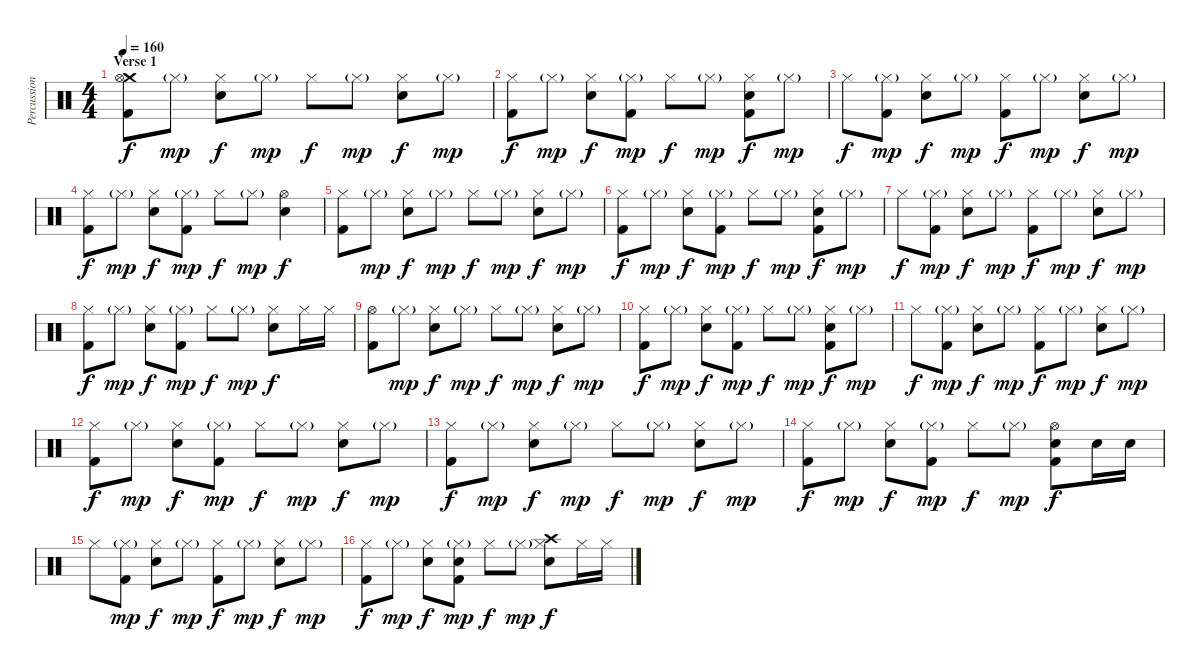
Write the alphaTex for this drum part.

\track ("Percussions" "Percussion") {instrument percussion}
\staff {score}
\articulation defaults
\ts (4 4)
\section ("" "Verse 1")
\tempo 160
\clef neutral
\ks c
("Crash medium (hit)" "Hi-Hat (open)" "Kick (hit) 2").8{dy f} "Hi-Hat (closed)"{g}.8{dy mp} ("Hi-Hat (closed)" "Snare (hit) 2").8{dy f} "Hi-Hat (closed)"{g}.8{dy mp} "Hi-Hat (closed)".8{dy f} "Hi-Hat (closed)"{g}.8{dy mp} ("Hi-Hat (closed)" "Snare (hit) 2").8{dy f} "Hi-Hat (closed)"{g}.8{dy mp} |
("Hi-Hat (closed)" "Kick (hit) 2").8{dy f} "Hi-Hat (closed)"{g}.8{dy mp} ("Hi-Hat (closed)" "Snare (hit) 2").8{dy f} ("Hi-Hat (closed)"{g} "Kick (hit) 2").8{dy mp} "Hi-Hat (closed)".8{dy f} "Hi-Hat (closed)"{g}.8{dy mp} ("Hi-Hat (closed)" "Snare (hit) 2" "Kick (hit) 2").8{dy f} "Hi-Hat (closed)"{g}.8{dy mp} |
"Hi-Hat (closed)".8{dy f} ("Hi-Hat (closed)"{g} "Kick (hit) 2").8{dy mp} ("Hi-Hat (closed)" "Snare (hit) 2").8{dy f} "Hi-Hat (closed)"{g}.8{dy mp} ("Hi-Hat (closed)" "Kick (hit) 2").8{dy f} "Hi-Hat (closed)"{g}.8{dy mp} ("Hi-Hat (closed)" "Snare (hit) 2").8{dy f} "Hi-Hat (closed)"{g}.8{dy mp} |
("Hi-Hat (closed)" "Kick (hit) 2").8{dy f} "Hi-Hat (closed)"{g}.8{dy mp} ("Hi-Hat (closed)" "Snare (hit) 2").8{dy f} ("Hi-Hat (closed)"{g} "Kick (hit) 2").8{dy mp} "Hi-Hat (closed)".8{dy f} "Hi-Hat (closed)"{g}.8{dy mp} ("Hi-Hat (open)" "Snare (hit) 2").4{dy f} |
("Hi-Hat (closed)" "Kick (hit) 2").8 "Hi-Hat (closed)"{g}.8{dy mp} ("Hi-Hat (closed)" "Snare (hit) 2").8{dy f} "Hi-Hat (closed)"{g}.8{dy mp} "Hi-Hat (closed)".8{dy f} "Hi-Hat (closed)"{g}.8{dy mp} ("Hi-Hat (closed)" "Snare (hit) 2").8{dy f} "Hi-Hat (closed)"{g}.8{dy mp} |
("Hi-Hat (closed)" "Kick (hit) 2").8{dy f} "Hi-Hat (closed)"{g}.8{dy mp} ("Hi-Hat (closed)" "Snare (hit) 2").8{dy f} ("Hi-Hat (closed)"{g} "Kick (hit) 2").8{dy mp} "Hi-Hat (closed)".8{dy f} "Hi-Hat (closed)"{g}.8{dy mp} ("Hi-Hat (closed)" "Snare (hit) 2" "Kick (hit) 2").8{dy f} "Hi-Hat (closed)"{g}.8{dy mp} |
"Hi-Hat (closed)".8{dy f} ("Hi-Hat (closed)"{g} "Kick (hit) 2").8{dy mp} ("Hi-Hat (closed)" "Snare (hit) 2").8{dy f} "Hi-Hat (closed)"{g}.8{dy mp} ("Hi-Hat (closed)" "Kick (hit) 2").8{dy f} "Hi-Hat (closed)"{g}.8{dy mp} ("Hi-Hat (closed)" "Snare (hit) 2").8{dy f} "Hi-Hat (closed)"{g}.8{dy mp} |
("Hi-Hat (closed)" "Kick (hit) 2").8{dy f} "Hi-Hat (closed)"{g}.8{dy mp} ("Hi-Hat (closed)" "Snare (hit) 2").8{dy f} ("Hi-Hat (closed)"{g} "Kick (hit) 2").8{dy mp} "Hi-Hat (closed)".8{dy f} "Hi-Hat (closed)"{g}.8{dy mp} ("Hi-Hat (closed)" "Snare (hit) 2").8{dy f} "Hi-Hat (closed)".16 "Hi-Hat (closed)".16 |
("Hi-Hat (open)" "Kick (hit) 2").8 "Hi-Hat (closed)"{g}.8{dy mp} ("Hi-Hat (closed)" "Snare (hit) 2").8{dy f} "Hi-Hat (closed)"{g}.8{dy mp} "Hi-Hat (closed)".8{dy f} "Hi-Hat (closed)"{g}.8{dy mp} ("Hi-Hat (closed)" "Snare (hit) 2").8{dy f} "Hi-Hat (closed)"{g}.8{dy mp} |
("Hi-Hat (closed)" "Kick (hit) 2").8{dy f} "Hi-Hat (closed)"{g}.8{dy mp} ("Hi-Hat (closed)" "Snare (hit) 2").8{dy f} ("Hi-Hat (closed)"{g} "Kick (hit) 2").8{dy mp} "Hi-Hat (closed)".8{dy f} "Hi-Hat (closed)"{g}.8{dy mp} ("Hi-Hat (closed)" "Snare (hit) 2" "Kick (hit) 2").8{dy f} "Hi-Hat (closed)"{g}.8{dy mp} |
"Hi-Hat (closed)".8{dy f} ("Hi-Hat (closed)"{g} "Kick (hit) 2").8{dy mp} ("Hi-Hat (closed)" "Snare (hit) 2").8{dy f} "Hi-Hat (closed)"{g}.8{dy mp} ("Hi-Hat (closed)" "Kick (hit) 2").8{dy f} "Hi-Hat (closed)"{g}.8{dy mp} ("Hi-Hat (closed)" "Snare (hit) 2").8{dy f} "Hi-Hat (closed)"{g}.8{dy mp} |
("Hi-Hat (closed)" "Kick (hit) 2").8{dy f} "Hi-Hat (closed)"{g}.8{dy mp} ("Hi-Hat (closed)" "Snare (hit) 2").8{dy f} ("Hi-Hat (closed)"{g} "Kick (hit) 2").8{dy mp} "Hi-Hat (closed)".8{dy f} "Hi-Hat (closed)"{g}.8{dy mp} ("Hi-Hat (closed)" "Snare (hit) 2").8{dy f} "Hi-Hat (closed)"{g}.8{dy mp} |
("Hi-Hat (closed)" "Kick (hit) 2").8{dy f} "Hi-Hat (closed)"{g}.8{dy mp} ("Hi-Hat (closed)" "Snare (hit) 2").8{dy f} "Hi-Hat (closed)"{g}.8{dy mp} "Hi-Hat (closed)".8{dy f} "Hi-Hat (closed)"{g}.8{dy mp} ("Hi-Hat (closed)" "Snare (hit) 2").8{dy f} "Hi-Hat (closed)"{g}.8{dy mp} |
("Hi-Hat (closed)" "Kick (hit) 2").8{dy f} "Hi-Hat (closed)"{g}.8{dy mp} ("Hi-Hat (closed)" "Snare (hit) 2").8{dy f} ("Hi-Hat (closed)"{g} "Kick (hit) 2").8{dy mp} "Hi-Hat (closed)".8{dy f} "Hi-Hat (closed)"{g}.8{dy mp} ("Hi-Hat (open)" "Snare (hit) 2" "Kick (hit) 2").8{dy f} "Snare (hit) 2".16 "Snare (hit) 2".16 |
"Hi-Hat (closed)".8 ("Hi-Hat (closed)"{g} "Kick (hit) 2").8{dy mp} ("Hi-Hat (closed)" "Snare (hit) 2").8{dy f} "Hi-Hat (closed)"{g}.8{dy mp} ("Hi-Hat (closed)" "Kick (hit) 2").8{dy f} "Hi-Hat (closed)"{g}.8{dy mp} ("Hi-Hat (closed)" "Snare (hit) 2").8{dy f} "Hi-Hat (closed)"{g}.8{dy mp} |
("Hi-Hat (closed)" "Kick (hit) 2").8{dy f} "Hi-Hat (closed)"{g}.8{dy mp} ("Hi-Hat (closed)" "Snare (hit) 2").8{dy f} ("Hi-Hat (closed)"{g} "Snare (hit) 2" "Kick (hit) 2").8{dy mp} "Hi-Hat (closed)".8{dy f} "Hi-Hat (closed)"{g}.8{dy mp} ("Crash high (hit)" "Hi-Hat (closed)" "Snare (hit) 2").8{dy f} "Hi-Hat (closed)".16 "Hi-Hat (closed)".16
